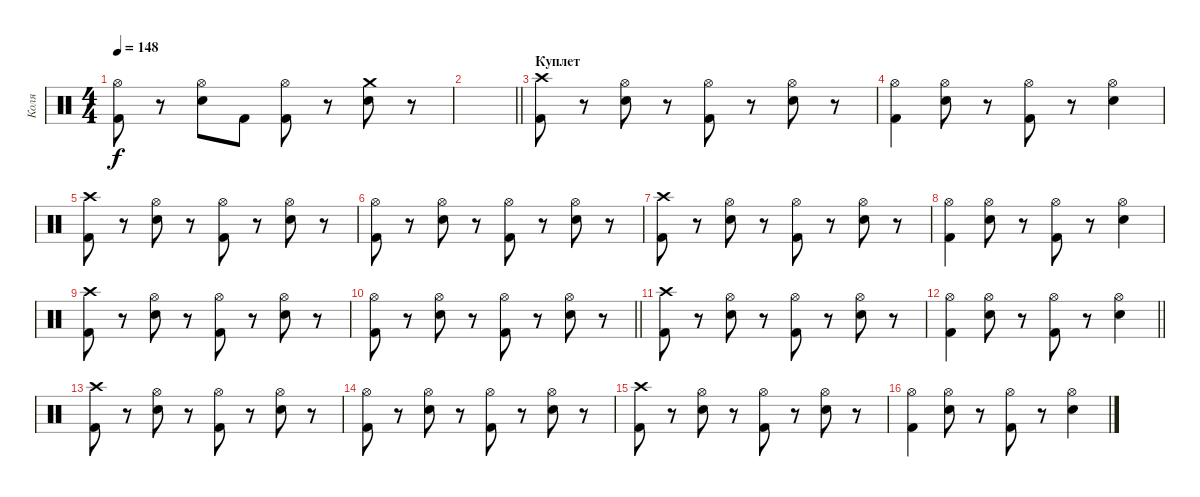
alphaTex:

\track ("Коля" "Коля") {instrument percussion}
\staff {score}
\articulation defaults
\ts (4 4)
\tempo 148
\clef neutral
\ks c
("Kick (hit) 2" "Hi-Hat (open)").8{dy f} r.8 ("Electric Snare (hit)" "Hi-Hat (open)").8 "Kick (hit) 2".8 ("Kick (hit) 2" "Hi-Hat (open)").8 r.8 ("Electric Snare (hit)" "Crash medium (hit)").8 r.8 |
\barLineRight lightlight
|
\section ("" "Куплет")
("Kick (hit) 2" "Crash high (hit)").8 r.8 ("Electric Snare (hit)" "Hi-Hat (open)").8 r.8 ("Kick (hit) 2" "Hi-Hat (open)").8 r.8 ("Electric Snare (hit)" "Hi-Hat (open)").8 r.8 |
("Kick (hit) 2" "Hi-Hat (open)").4 ("Electric Snare (hit)" "Hi-Hat (open)").8 r.8 ("Kick (hit) 2" "Hi-Hat (open)").8 r.8 ("Electric Snare (hit)" "Hi-Hat (open)").4 |
("Kick (hit) 2" "Crash high (hit)").8 r.8 ("Electric Snare (hit)" "Hi-Hat (open)").8 r.8 ("Kick (hit) 2" "Hi-Hat (open)").8 r.8 ("Electric Snare (hit)" "Hi-Hat (open)").8 r.8 |
("Kick (hit) 2" "Hi-Hat (open)").8 r.8 ("Electric Snare (hit)" "Hi-Hat (open)").8 r.8 ("Kick (hit) 2" "Hi-Hat (open)").8 r.8 ("Electric Snare (hit)" "Hi-Hat (open)").8 r.8 |
("Kick (hit) 2" "Crash high (hit)").8 r.8 ("Electric Snare (hit)" "Hi-Hat (open)").8 r.8 ("Kick (hit) 2" "Hi-Hat (open)").8 r.8 ("Electric Snare (hit)" "Hi-Hat (open)").8 r.8 |
("Kick (hit) 2" "Hi-Hat (open)").4 ("Electric Snare (hit)" "Hi-Hat (open)").8 r.8 ("Kick (hit) 2" "Hi-Hat (open)").8 r.8 ("Electric Snare (hit)" "Hi-Hat (open)").4 |
("Kick (hit) 2" "Crash high (hit)").8 r.8 ("Electric Snare (hit)" "Hi-Hat (open)").8 r.8 ("Kick (hit) 2" "Hi-Hat (open)").8 r.8 ("Electric Snare (hit)" "Hi-Hat (open)").8 r.8 |
\barLineRight lightlight
("Kick (hit) 2" "Hi-Hat (open)").8 r.8 ("Electric Snare (hit)" "Hi-Hat (open)").8 r.8 ("Kick (hit) 2" "Hi-Hat (open)").8 r.8 ("Electric Snare (hit)" "Hi-Hat (open)").8 r.8 |
("Kick (hit) 2" "Crash high (hit)").8 r.8 ("Electric Snare (hit)" "Hi-Hat (open)").8 r.8 ("Kick (hit) 2" "Hi-Hat (open)").8 r.8 ("Electric Snare (hit)" "Hi-Hat (open)").8 r.8 |
\barLineRight lightlight
("Kick (hit) 2" "Hi-Hat (open)").4 ("Electric Snare (hit)" "Hi-Hat (open)").8 r.8 ("Kick (hit) 2" "Hi-Hat (open)").8 r.8 ("Electric Snare (hit)" "Hi-Hat (open)").4 |
("Kick (hit) 2" "Crash high (hit)").8 r.8 ("Electric Snare (hit)" "Hi-Hat (open)").8 r.8 ("Kick (hit) 2" "Hi-Hat (open)").8 r.8 ("Electric Snare (hit)" "Hi-Hat (open)").8 r.8 |
("Kick (hit) 2" "Hi-Hat (open)").8 r.8 ("Electric Snare (hit)" "Hi-Hat (open)").8 r.8 ("Kick (hit) 2" "Hi-Hat (open)").8 r.8 ("Electric Snare (hit)" "Hi-Hat (open)").8 r.8 |
("Kick (hit) 2" "Crash high (hit)").8 r.8 ("Electric Snare (hit)" "Hi-Hat (open)").8 r.8 ("Kick (hit) 2" "Hi-Hat (open)").8 r.8 ("Electric Snare (hit)" "Hi-Hat (open)").8 r.8 |
("Kick (hit) 2" "Hi-Hat (open)").4 ("Electric Snare (hit)" "Hi-Hat (open)").8 r.8 ("Kick (hit) 2" "Hi-Hat (open)").8 r.8 ("Electric Snare (hit)" "Hi-Hat (open)").4
